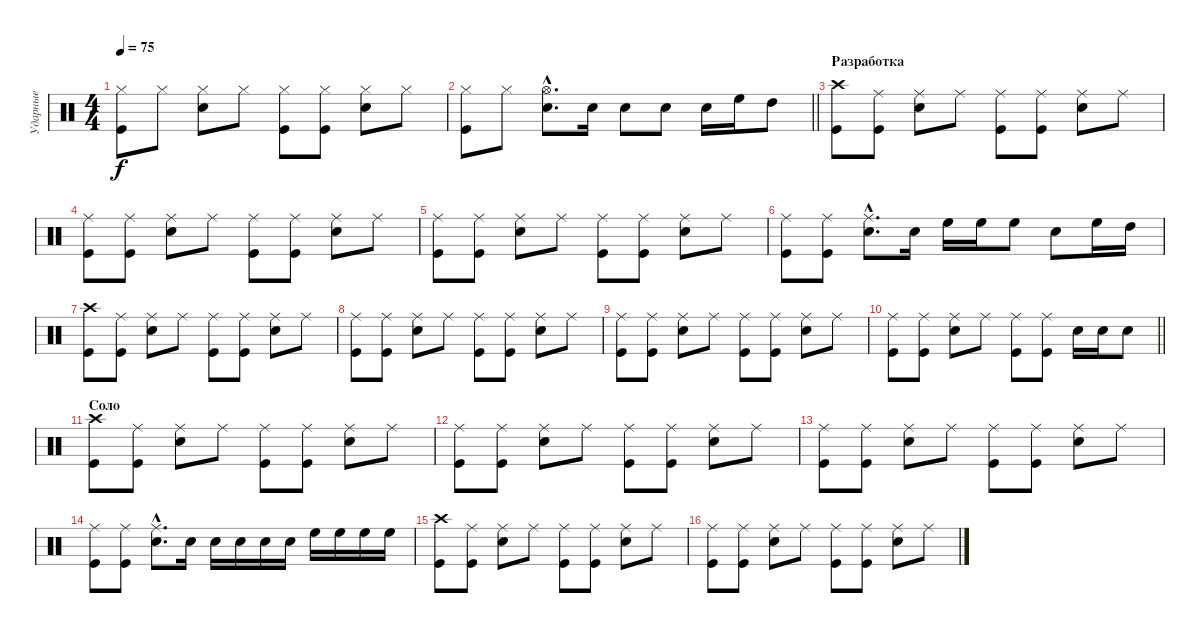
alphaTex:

\track ("Ударные" "Ударные") {instrument percussion}
\staff {score}
\articulation defaults
\ts (4 4)
\tempo 75
\clef neutral
\ks c
("Hi-Hat (closed)" "Kick (hit)").8{dy f} "Hi-Hat (closed)".8 ("Hi-Hat (closed)" "Snare (hit) 2").8 "Hi-Hat (closed)".8 ("Hi-Hat (closed)" "Kick (hit)").8 ("Hi-Hat (closed)" "Kick (hit)").8 ("Hi-Hat (closed)" "Snare (hit) 2").8 "Hi-Hat (closed)".8 |
\barLineRight lightlight
("Hi-Hat (closed)" "Kick (hit)").8 "Hi-Hat (closed)".8 ("Hi-Hat (open)"{hac} "Snare (hit) 2"{hac}).8{d} "Snare (hit) 2".16 "Snare (hit) 2".8 "Snare (hit) 2".8 "Snare (hit) 2".16 "High Floor Tom (hit)".16 "High Tom (hit)".8 |
\section ("" "Разработка")
("Crash high (hit)" "Kick (hit)").8 ("Ride (middle)" "Kick (hit)").8 ("Ride (middle)" "Snare (hit) 2").8 "Ride (middle)".8 ("Ride (middle)" "Kick (hit)").8 ("Ride (middle)" "Kick (hit)").8 ("Ride (middle)" "Snare (hit) 2").8 "Ride (middle)".8 |
("Ride (middle)" "Kick (hit)").8 ("Ride (middle)" "Kick (hit)").8 ("Ride (middle)" "Snare (hit) 2").8 "Ride (middle)".8 ("Ride (middle)" "Kick (hit)").8 ("Ride (middle)" "Kick (hit)").8 ("Ride (middle)" "Snare (hit) 2").8 "Ride (middle)".8 |
("Ride (middle)" "Kick (hit)").8 ("Ride (middle)" "Kick (hit)").8 ("Ride (middle)" "Snare (hit) 2").8 "Ride (middle)".8 ("Ride (middle)" "Kick (hit)").8 ("Ride (middle)" "Kick (hit)").8 ("Ride (middle)" "Snare (hit) 2").8 "Ride (middle)".8 |
("Ride (middle)" "Kick (hit)").8 ("Ride (middle)" "Kick (hit)").8 ("Ride (middle)"{hac} "Snare (hit) 2"{hac}).8{d} "Snare (hit) 2".16 "High Floor Tom (hit)".16 "High Floor Tom (hit)".16 "High Floor Tom (hit)".8 "Snare (hit) 2".8 "High Floor Tom (hit)".16 "High Tom (hit)".16 |
("Crash high (hit)" "Kick (hit)").8 ("Ride (middle)" "Kick (hit)").8 ("Ride (middle)" "Snare (hit) 2").8 "Ride (middle)".8 ("Ride (middle)" "Kick (hit)").8 ("Ride (middle)" "Kick (hit)").8 ("Ride (middle)" "Snare (hit) 2").8 "Ride (middle)".8 |
("Ride (middle)" "Kick (hit)").8 ("Ride (middle)" "Kick (hit)").8 ("Ride (middle)" "Snare (hit) 2").8 "Ride (middle)".8 ("Ride (middle)" "Kick (hit)").8 ("Ride (middle)" "Kick (hit)").8 ("Ride (middle)" "Snare (hit) 2").8 "Ride (middle)".8 |
("Ride (middle)" "Kick (hit)").8 ("Ride (middle)" "Kick (hit)").8 ("Ride (middle)" "Snare (hit) 2").8 "Ride (middle)".8 ("Ride (middle)" "Kick (hit)").8 ("Ride (middle)" "Kick (hit)").8 ("Ride (middle)" "Snare (hit) 2").8 "Ride (middle)".8 |
\barLineRight lightlight
("Ride (middle)" "Kick (hit)").8 ("Ride (middle)" "Kick (hit)").8 ("Ride (middle)" "Snare (hit) 2").8 "Ride (middle)".8 ("Ride (middle)" "Kick (hit)").8 ("Ride (middle)" "Kick (hit)").8 "Snare (hit) 2".16 "Snare (hit) 2".16 "Snare (hit) 2".8 |
\section ("" "Соло")
("Crash high (hit)" "Kick (hit)").8 ("Ride (middle)" "Kick (hit)").8 ("Ride (middle)" "Snare (hit) 2").8 "Ride (middle)".8 ("Ride (middle)" "Kick (hit)").8 ("Ride (middle)" "Kick (hit)").8 ("Ride (middle)" "Snare (hit) 2").8 "Ride (middle)".8 |
("Ride (middle)" "Kick (hit)").8 ("Ride (middle)" "Kick (hit)").8 ("Ride (middle)" "Snare (hit) 2").8 "Ride (middle)".8 ("Ride (middle)" "Kick (hit)").8 ("Ride (middle)" "Kick (hit)").8 ("Ride (middle)" "Snare (hit) 2").8 "Ride (middle)".8 |
("Ride (middle)" "Kick (hit)").8 ("Ride (middle)" "Kick (hit)").8 ("Ride (middle)" "Snare (hit) 2").8 "Ride (middle)".8 ("Ride (middle)" "Kick (hit)").8 ("Ride (middle)" "Kick (hit)").8 ("Ride (middle)" "Snare (hit) 2").8 "Ride (middle)".8 |
("Ride (middle)" "Kick (hit)").8 ("Ride (middle)" "Kick (hit)").8 ("Ride (middle)"{hac} "Snare (hit) 2"{hac}).8{d} "Snare (hit) 2".16 "Snare (hit) 2".16 "Snare (hit) 2".16 "Snare (hit) 2".16 "Snare (hit) 2".16 "High Floor Tom (hit)".16 "High Floor Tom (hit)".16 "High Floor Tom (hit)".16 "High Floor Tom (hit)".16 |
("Crash high (hit)" "Kick (hit)").8 ("Ride (middle)" "Kick (hit)").8 ("Ride (middle)" "Snare (hit) 2").8 "Ride (middle)".8 ("Ride (middle)" "Kick (hit)").8 ("Ride (middle)" "Kick (hit)").8 ("Ride (middle)" "Snare (hit) 2").8 "Ride (middle)".8 |
("Ride (middle)" "Kick (hit)").8 ("Ride (middle)" "Kick (hit)").8 ("Ride (middle)" "Snare (hit) 2").8 "Ride (middle)".8 ("Ride (middle)" "Kick (hit)").8 ("Ride (middle)" "Kick (hit)").8 ("Ride (middle)" "Snare (hit) 2").8 "Ride (middle)".8
